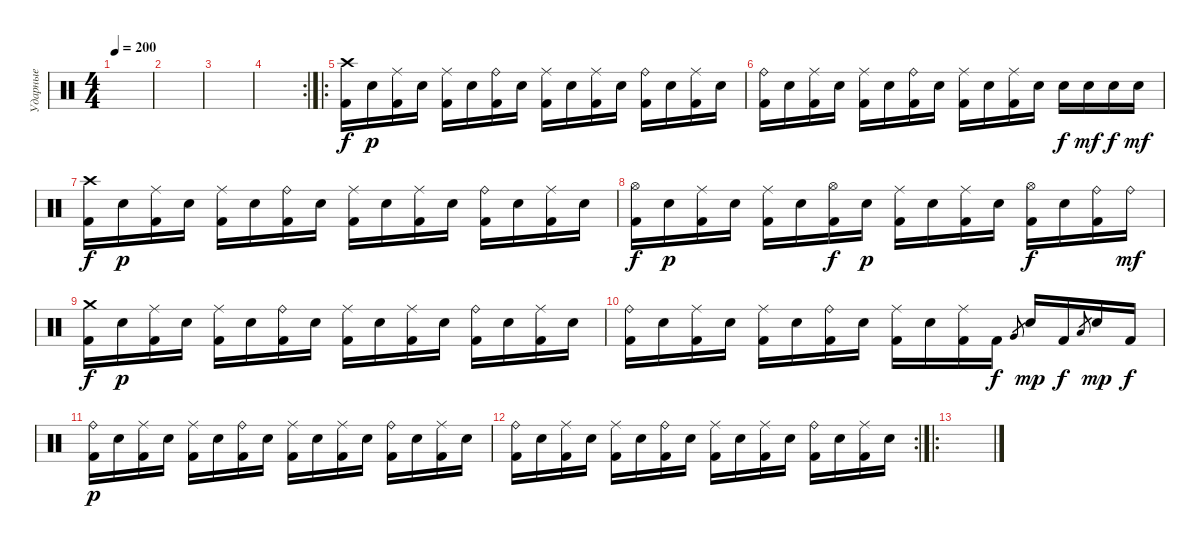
\track ("Ударные" "Ударные") {instrument percussion}
\staff {score}
\articulation defaults
\ts (4 4)
\tempo 200
\clef neutral
\ks c
|
|
|
\rc 2
|
\ro
("Crash high (hit)" "Kick (hit) 2").16 "Electric Snare (hit)".16{dy p} ("Ride (middle)" "Kick (hit) 2").16 "Electric Snare (hit)".16 ("Ride (middle)" "Kick (hit) 2").16 "Electric Snare (hit)".16 ("Ride (bell)" "Kick (hit) 2").16 "Electric Snare (hit)".16 ("Ride (middle)" "Kick (hit) 2").16 "Electric Snare (hit)".16 ("Ride (middle)" "Kick (hit) 2").16 "Electric Snare (hit)".16 ("Ride (bell)" "Kick (hit) 2").16 "Electric Snare (hit)".16 ("Ride (middle)" "Kick (hit) 2").16 "Electric Snare (hit)".16 |
("Ride (bell)" "Kick (hit) 2").16 "Electric Snare (hit)".16 ("Ride (middle)" "Kick (hit) 2").16 "Electric Snare (hit)".16 ("Ride (middle)" "Kick (hit) 2").16 "Electric Snare (hit)".16 ("Ride (bell)" "Kick (hit) 2").16 "Electric Snare (hit)".16 ("Ride (middle)" "Kick (hit) 2").16 "Electric Snare (hit)".16 ("Ride (middle)" "Kick (hit) 2").16 "Electric Snare (hit)".16 "Electric Snare (hit)".16{dy f} "Electric Snare (hit)".16{dy mf} "Electric Snare (hit)".16{dy f} "Electric Snare (hit)".16{dy mf} |
("Crash high (hit)" "Kick (hit) 2").16{dy f} "Electric Snare (hit)".16{dy p} ("Ride (middle)" "Kick (hit) 2").16 "Electric Snare (hit)".16 ("Ride (middle)" "Kick (hit) 2").16 "Electric Snare (hit)".16 ("Ride (bell)" "Kick (hit) 2").16 "Electric Snare (hit)".16 ("Ride (middle)" "Kick (hit) 2").16 "Electric Snare (hit)".16 ("Ride (middle)" "Kick (hit) 2").16 "Electric Snare (hit)".16 ("Ride (bell)" "Kick (hit) 2").16 "Electric Snare (hit)".16 ("Ride (middle)" "Kick (hit) 2").16 "Electric Snare (hit)".16 |
("Hi-Hat (open)" "Kick (hit) 2").16{dy f} "Electric Snare (hit)".16{dy p} ("Ride (middle)" "Kick (hit) 2").16 "Electric Snare (hit)".16 ("Ride (middle)" "Kick (hit) 2").16 "Electric Snare (hit)".16 ("Hi-Hat (open)" "Kick (hit) 2").16{dy f} "Electric Snare (hit)".16{dy p} ("Ride (middle)" "Kick (hit) 2").16 "Electric Snare (hit)".16 ("Ride (middle)" "Kick (hit) 2").16 "Electric Snare (hit)".16 ("Hi-Hat (open)" "Kick (hit) 2").16{dy f} "Electric Snare (hit)".16 ("Ride (bell)" "Kick (hit) 2").16 "Ride (bell)".16{dy mf} |
("Crash medium (hit)" "Kick (hit) 2").16{dy f} "Electric Snare (hit)".16{dy p} ("Ride (middle)" "Kick (hit) 2").16 "Electric Snare (hit)".16 ("Ride (middle)" "Kick (hit) 2").16 "Electric Snare (hit)".16 ("Ride (bell)" "Kick (hit) 2").16 "Electric Snare (hit)".16 ("Ride (middle)" "Kick (hit) 2").16 "Electric Snare (hit)".16 ("Ride (middle)" "Kick (hit) 2").16 "Electric Snare (hit)".16 ("Ride (bell)" "Kick (hit) 2").16 "Electric Snare (hit)".16 ("Ride (middle)" "Kick (hit) 2").16 "Electric Snare (hit)".16 |
("Ride (bell)" "Kick (hit) 2").16 "Electric Snare (hit)".16 ("Ride (middle)" "Kick (hit) 2").16 "Electric Snare (hit)".16 ("Ride (middle)" "Kick (hit) 2").16 "Electric Snare (hit)".16 ("Ride (bell)" "Kick (hit) 2").16 "Electric Snare (hit)".16 ("Ride (middle)" "Kick (hit) 2").16 "Electric Snare (hit)".16 ("Ride (middle)" "Kick (hit) 2").16 "Kick (hit) 2".16{dy f} "Very Low Tom (hit)".8{gr} "Electric Snare (hit)".16{dy mp} "Kick (hit) 2".16{dy f} "Low Floor Tom (hit)".8{gr} "Electric Snare (hit)".16{dy mp} "Kick (hit) 2".16{dy f} |
("Ride (bell)" "Kick (hit) 2").16{dy p} "Electric Snare (hit)".16 ("Ride (middle)" "Kick (hit) 2").16 "Electric Snare (hit)".16 ("Ride (middle)" "Kick (hit) 2").16 "Electric Snare (hit)".16 ("Ride (bell)" "Kick (hit) 2").16 "Electric Snare (hit)".16 ("Ride (middle)" "Kick (hit) 2").16 "Electric Snare (hit)".16 ("Ride (middle)" "Kick (hit) 2").16 "Electric Snare (hit)".16 ("Ride (bell)" "Kick (hit) 2").16 "Electric Snare (hit)".16 ("Ride (middle)" "Kick (hit) 2").16 "Electric Snare (hit)".16 |
\rc 2
("Ride (bell)" "Kick (hit) 2").16 "Electric Snare (hit)".16 ("Ride (middle)" "Kick (hit) 2").16 "Electric Snare (hit)".16 ("Ride (middle)" "Kick (hit) 2").16 "Electric Snare (hit)".16 ("Ride (bell)" "Kick (hit) 2").16 "Electric Snare (hit)".16 ("Ride (middle)" "Kick (hit) 2").16 "Electric Snare (hit)".16 ("Ride (middle)" "Kick (hit) 2").16 "Electric Snare (hit)".16 ("Ride (bell)" "Kick (hit) 2").16 "Electric Snare (hit)".16 ("Ride (middle)" "Kick (hit) 2").16 "Electric Snare (hit)".16 |
\ro
